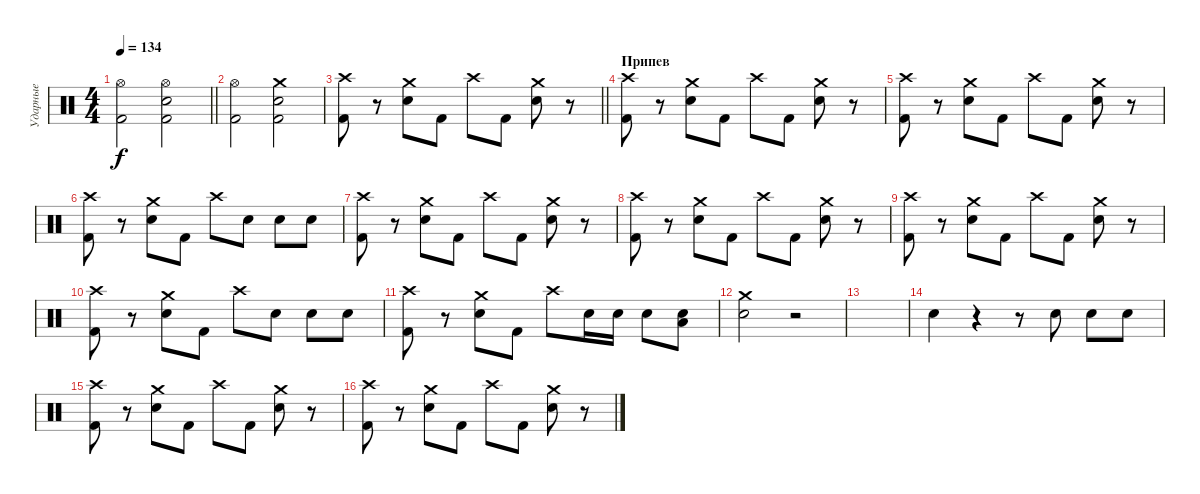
\track ("Ударные" "Ударные") {instrument percussion}
\staff {score}
\articulation defaults
\ts (4 4)
\tempo 134
\clef neutral
\barLineRight lightlight
\ks c
("Hi-Hat (open)" "Kick (hit) 2").2{dy f} ("Hi-Hat (open)" "Snare (hit) 2" "Kick (hit) 2").2 |
("Hi-Hat (open)" "Kick (hit) 2").2 ("Crash medium (hit)" "Snare (hit) 2" "Kick (hit) 2").2 |
\barLineRight lightlight
("Crash high (hit)" "Kick (hit) 2").8 r.8 ("Crash medium (hit)" "Snare (hit) 2").8 "Kick (hit) 2".8 "Crash high (hit)".8 "Kick (hit) 2".8 ("Crash medium (hit)" "Snare (hit) 2").8 r.8 |
\section ("" "Припев")
("Crash high (hit)" "Kick (hit) 2").8 r.8 ("Crash medium (hit)" "Snare (hit) 2").8 "Kick (hit) 2".8 "Crash high (hit)".8 "Kick (hit) 2".8 ("Crash medium (hit)" "Snare (hit) 2").8 r.8 |
("Crash high (hit)" "Kick (hit) 2").8 r.8 ("Crash medium (hit)" "Snare (hit) 2").8 "Kick (hit) 2".8 "Crash high (hit)".8 "Kick (hit) 2".8 ("Crash medium (hit)" "Snare (hit) 2").8 r.8 |
("Crash high (hit)" "Kick (hit) 2").8 r.8 ("Crash medium (hit)" "Snare (hit) 2").8 "Kick (hit) 2".8 "Crash high (hit)".8 "Snare (hit) 2".8 "Snare (hit) 2".8 "Snare (hit) 2".8 |
("Crash high (hit)" "Kick (hit) 2").8 r.8 ("Crash medium (hit)" "Snare (hit) 2").8 "Kick (hit) 2".8 "Crash high (hit)".8 "Kick (hit) 2".8 ("Crash medium (hit)" "Snare (hit) 2").8 r.8 |
("Crash high (hit)" "Kick (hit) 2").8 r.8 ("Crash medium (hit)" "Snare (hit) 2").8 "Kick (hit) 2".8 "Crash high (hit)".8 "Kick (hit) 2".8 ("Crash medium (hit)" "Snare (hit) 2").8 r.8 |
("Crash high (hit)" "Kick (hit) 2").8 r.8 ("Crash medium (hit)" "Snare (hit) 2").8 "Kick (hit) 2".8 "Crash high (hit)".8 "Kick (hit) 2".8 ("Crash medium (hit)" "Snare (hit) 2").8 r.8 |
("Crash high (hit)" "Kick (hit) 2").8 r.8 ("Crash medium (hit)" "Snare (hit) 2").8 "Kick (hit) 2".8 "Crash high (hit)".8 "Snare (hit) 2".8 "Snare (hit) 2".8 "Snare (hit) 2".8 |
("Crash high (hit)" "Kick (hit) 2").8 r.8 ("Crash medium (hit)" "Snare (hit) 2").8 "Kick (hit) 2".8 "Crash high (hit)".8 "Snare (hit) 2".16 "Snare (hit) 2".16 "Snare (hit) 2".8 ("Low Floor Tom (hit)" "Snare (hit) 2").8 |
("Crash medium (hit)" "Snare (hit) 2").2{volume 13} r.2 |
|
"Snare (hit) 2".4 r.4 r.8 "Snare (hit) 2".8 "Snare (hit) 2".8 "Snare (hit) 2".8 |
("Crash high (hit)" "Kick (hit) 2").8 r.8 ("Crash medium (hit)" "Snare (hit) 2").8 "Kick (hit) 2".8 "Crash high (hit)".8 "Kick (hit) 2".8 ("Crash medium (hit)" "Snare (hit) 2").8 r.8 |
("Crash high (hit)" "Kick (hit) 2").8 r.8 ("Crash medium (hit)" "Snare (hit) 2").8 "Kick (hit) 2".8 "Crash high (hit)".8 "Kick (hit) 2".8 ("Crash medium (hit)" "Snare (hit) 2").8 r.8
